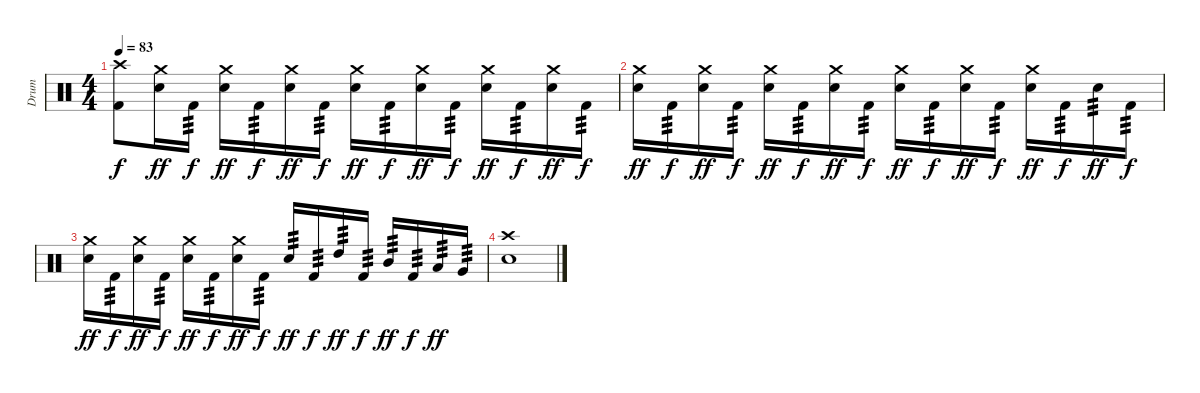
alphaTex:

\track ("Drum" "Drum") {instrument percussion}
\staff {score}
\articulation defaults
\ts (4 4)
\section ("" "")
\tempo 83
\clef neutral
\ks c
("Kick (hit) 2" "Crash high (hit)").8{dy f} ("Electric Snare (hit)" "Crash medium (hit)").16{dy ff} "Kick (hit) 2".16{tp 3 dy f} ("Electric Snare (hit)" "Crash medium (hit)").16{dy ff} "Kick (hit) 2".16{tp 3 dy f} ("Electric Snare (hit)" "Crash medium (hit)").16{dy ff} "Kick (hit) 2".16{tp 3 dy f} ("Electric Snare (hit)" "Crash medium (hit)").16{dy ff} "Kick (hit) 2".16{tp 3 dy f} ("Electric Snare (hit)" "Crash medium (hit)").16{dy ff} "Kick (hit) 2".16{tp 3 dy f} ("Electric Snare (hit)" "Crash medium (hit)").16{dy ff} "Kick (hit) 2".16{tp 3 dy f} ("Electric Snare (hit)" "Crash medium (hit)").16{dy ff} "Kick (hit) 2".16{tp 3 dy f} |
("Electric Snare (hit)" "Crash medium (hit)").16{dy ff} "Kick (hit) 2".16{tp 3 dy f} ("Electric Snare (hit)" "Crash medium (hit)").16{dy ff} "Kick (hit) 2".16{tp 3 dy f} ("Electric Snare (hit)" "Crash medium (hit)").16{dy ff} "Kick (hit) 2".16{tp 3 dy f} ("Electric Snare (hit)" "Crash medium (hit)").16{dy ff} "Kick (hit) 2".16{tp 3 dy f} ("Electric Snare (hit)" "Crash medium (hit)").16{dy ff} "Kick (hit) 2".16{tp 3 dy f} ("Electric Snare (hit)" "Crash medium (hit)").16{dy ff} "Kick (hit) 2".16{tp 3 dy f} ("Electric Snare (hit)" "Crash medium (hit)").16{dy ff} "Kick (hit) 2".16{tp 3 dy f} "Electric Snare (hit)".16{tp 3 dy ff} "Kick (hit) 2".16{tp 3 dy f} |
("Electric Snare (hit)" "Crash medium (hit)").16{dy ff} "Kick (hit) 2".16{tp 3 dy f} ("Electric Snare (hit)" "Crash medium (hit)").16{dy ff} "Kick (hit) 2".16{tp 3 dy f} ("Electric Snare (hit)" "Crash medium (hit)").16{dy ff} "Kick (hit) 2".16{tp 3 dy f} ("Electric Snare (hit)" "Crash medium (hit)").16{dy ff} "Kick (hit) 2".16{tp 3 dy f} "Electric Snare (hit)".16{tp 3 dy ff} "Kick (hit) 2".16{tp 3 dy f} "High Tom (hit)".16{tp 3 dy ff} "Kick (hit) 2".16{tp 3 dy f} "Mid Tom (hit)".16{tp 3 dy ff} "Kick (hit) 2".16{tp 3 dy f} "Low Tom (hit)".16{tp 3 dy ff} "Very Low Tom (hit)".16{tp 3} |
("Electric Snare (hit)" "Crash high (hit)").1
